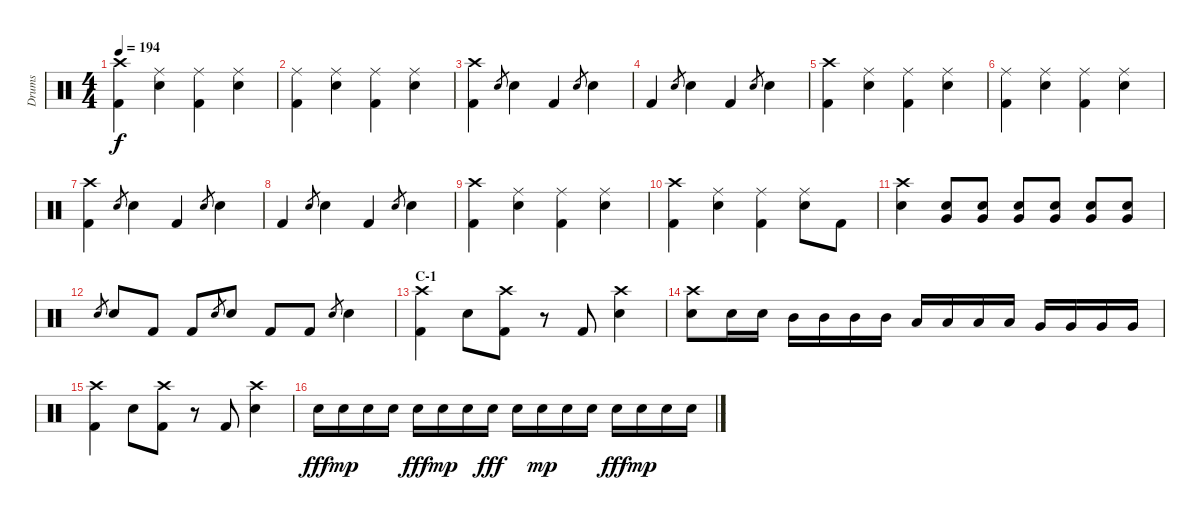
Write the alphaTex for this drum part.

\track ("Drums" "Drums") {instrument percussion}
\staff {score}
\articulation defaults
\ts (4 4)
\tempo 194
\clef neutral
\ks c
("Crash high (hit)" "Kick (hit) 2").4{dy f} ("Ride (middle)" "Electric Snare (hit)").4 ("Ride (middle)" "Kick (hit) 2").4 ("Ride (middle)" "Electric Snare (hit)").4 |
("Ride (middle)" "Kick (hit) 2").4 ("Ride (middle)" "Electric Snare (hit)").4 ("Ride (middle)" "Kick (hit) 2").4 ("Ride (middle)" "Electric Snare (hit)").4 |
("Crash high (hit)" "Kick (hit) 2").4 "Electric Snare (hit)".8{gr} "Electric Snare (hit)".4 "Kick (hit) 2".4 "Electric Snare (hit)".8{gr} "Electric Snare (hit)".4 |
"Kick (hit) 2".4 "Electric Snare (hit)".8{gr} "Electric Snare (hit)".4 "Kick (hit) 2".4 "Electric Snare (hit)".8{gr} "Electric Snare (hit)".4 |
("Crash high (hit)" "Kick (hit) 2").4 ("Ride (middle)" "Electric Snare (hit)").4 ("Ride (middle)" "Kick (hit) 2").4 ("Ride (middle)" "Electric Snare (hit)").4 |
("Ride (middle)" "Kick (hit) 2").4 ("Ride (middle)" "Electric Snare (hit)").4 ("Ride (middle)" "Kick (hit) 2").4 ("Ride (middle)" "Electric Snare (hit)").4 |
("Crash high (hit)" "Kick (hit) 2").4 "Electric Snare (hit)".8{gr} "Electric Snare (hit)".4 "Kick (hit) 2".4 "Electric Snare (hit)".8{gr} "Electric Snare (hit)".4 |
"Kick (hit) 2".4 "Electric Snare (hit)".8{gr} "Electric Snare (hit)".4 "Kick (hit) 2".4 "Electric Snare (hit)".8{gr} "Electric Snare (hit)".4 |
("Crash high (hit)" "Kick (hit) 2").4 ("Ride (middle)" "Electric Snare (hit)").4 ("Ride (middle)" "Kick (hit) 2").4 ("Ride (middle)" "Electric Snare (hit)").4 |
("Crash high (hit)" "Kick (hit) 2").4 ("Ride (middle)" "Electric Snare (hit)").4 ("Ride (middle)" "Kick (hit) 2").4 ("Ride (middle)" "Electric Snare (hit)").8 "Kick (hit) 2".8 |
("Crash high (hit)" "Electric Snare (hit)").4 ("Electric Snare (hit)" "Very Low Tom (hit)").8 ("Electric Snare (hit)" "Very Low Tom (hit)").8 ("Electric Snare (hit)" "Very Low Tom (hit)").8 ("Electric Snare (hit)" "Very Low Tom (hit)").8 ("Electric Snare (hit)" "Very Low Tom (hit)").8 ("Electric Snare (hit)" "Very Low Tom (hit)").8 |
"Electric Snare (hit)".8{gr} "Electric Snare (hit)".8 "Kick (hit) 2".8 "Kick (hit) 2".8 "Electric Snare (hit)".8{gr} "Electric Snare (hit)".8 "Kick (hit) 2".8 "Kick (hit) 2".8 "Electric Snare (hit)".8{gr} "Electric Snare (hit)".4 |
\section ("" "C-1")
("Crash high (hit)" "Kick (hit) 2").4 "Electric Snare (hit)".8 ("Crash high (hit)" "Kick (hit) 2").8 r.8 "Kick (hit) 2".8 ("Crash high (hit)" "Electric Snare (hit)").4 |
("Crash high (hit)" "Electric Snare (hit)").8 "Electric Snare (hit)".16 "Electric Snare (hit)".16 "Mid Tom (hit)".16 "Mid Tom (hit)".16 "Mid Tom (hit)".16 "Mid Tom (hit)".16 "Low Tom (hit)".16 "Low Tom (hit)".16 "Low Tom (hit)".16 "Low Tom (hit)".16 "Very Low Tom (hit)".16 "Very Low Tom (hit)".16 "Very Low Tom (hit)".16 "Very Low Tom (hit)".16 |
("Crash high (hit)" "Kick (hit) 2").4 "Electric Snare (hit)".8 ("Crash high (hit)" "Kick (hit) 2").8 r.8 "Kick (hit) 2".8 ("Crash high (hit)" "Electric Snare (hit)").4 |
"Electric Snare (hit)".16{dy fff} "Electric Snare (hit)".16{dy mp} "Electric Snare (hit)".16 "Electric Snare (hit)".16 "Electric Snare (hit)".16{dy fff} "Electric Snare (hit)".16{dy mp} "Electric Snare (hit)".16 "Electric Snare (hit)".16{dy fff} "Electric Snare (hit)".16 "Electric Snare (hit)".16{dy mp} "Electric Snare (hit)".16 "Electric Snare (hit)".16 "Electric Snare (hit)".16{dy fff} "Electric Snare (hit)".16{dy mp} "Electric Snare (hit)".16 "Electric Snare (hit)".16
